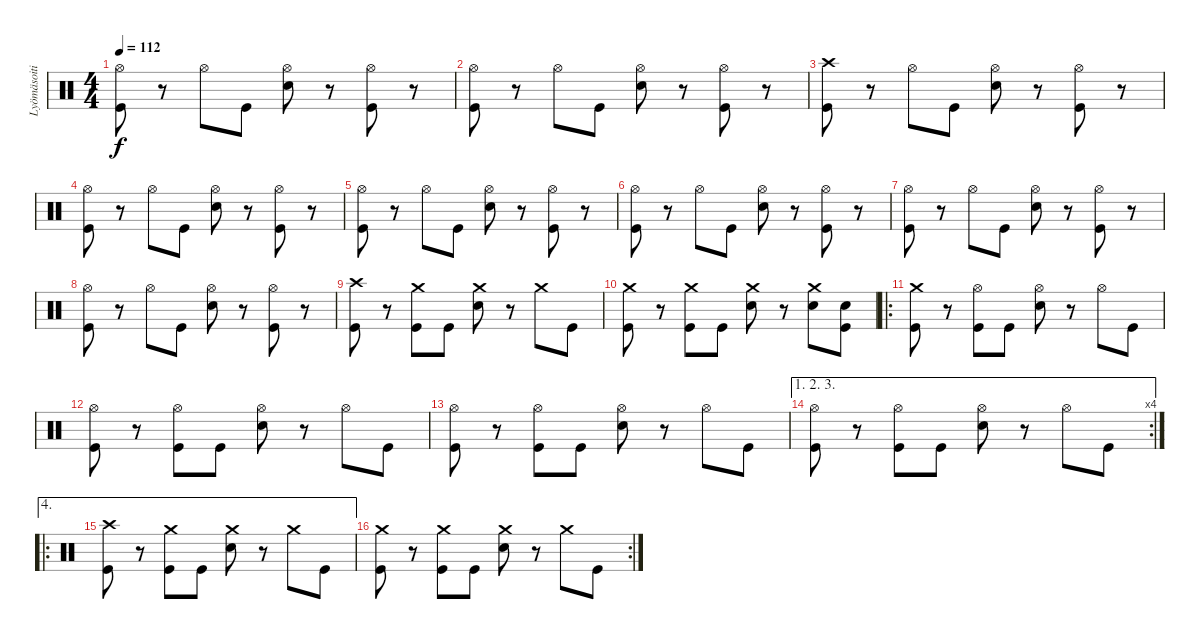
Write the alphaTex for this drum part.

\track ("Lyömäsoitin" "Lyömäsoiti") {instrument percussion}
\staff {score}
\articulation defaults
\ts (4 4)
\tempo 112
\clef neutral
\ks c
("Hi-Hat (open)" "Kick (hit)").8{dy f} r.8 "Hi-Hat (open)".8 "Kick (hit)".8 ("Hi-Hat (open)" "Snare (hit) 2").8 r.8 ("Hi-Hat (open)" "Kick (hit)").8 r.8 |
("Hi-Hat (open)" "Kick (hit)").8 r.8 "Hi-Hat (open)".8 "Kick (hit)".8 ("Hi-Hat (open)" "Snare (hit) 2").8 r.8 ("Hi-Hat (open)" "Kick (hit)").8 r.8 |
("Crash high (hit)" "Kick (hit)").8 r.8 "Hi-Hat (open)".8 "Kick (hit)".8 ("Hi-Hat (open)" "Snare (hit) 2").8 r.8 ("Hi-Hat (open)" "Kick (hit)").8 r.8 |
("Hi-Hat (open)" "Kick (hit)").8 r.8 "Hi-Hat (open)".8 "Kick (hit)".8 ("Hi-Hat (open)" "Snare (hit) 2").8 r.8 ("Hi-Hat (open)" "Kick (hit)").8 r.8 |
("Hi-Hat (open)" "Kick (hit)").8 r.8 "Hi-Hat (open)".8 "Kick (hit)".8 ("Hi-Hat (open)" "Snare (hit) 2").8 r.8 ("Hi-Hat (open)" "Kick (hit)").8 r.8 |
("Hi-Hat (open)" "Kick (hit)").8 r.8 "Hi-Hat (open)".8 "Kick (hit)".8 ("Hi-Hat (open)" "Snare (hit) 2").8 r.8 ("Hi-Hat (open)" "Kick (hit)").8 r.8 |
("Hi-Hat (open)" "Kick (hit)").8 r.8 "Hi-Hat (open)".8 "Kick (hit)".8 ("Hi-Hat (open)" "Snare (hit) 2").8 r.8 ("Hi-Hat (open)" "Kick (hit)").8 r.8 |
("Hi-Hat (open)" "Kick (hit)").8 r.8 "Hi-Hat (open)".8 "Kick (hit)".8 ("Hi-Hat (open)" "Snare (hit) 2").8 r.8 ("Hi-Hat (open)" "Kick (hit)").8 r.8 |
("Crash high (hit)" "Kick (hit)").8 r.8 ("Crash medium (hit)" "Kick (hit)").8 "Kick (hit)".8 ("Crash medium (hit)" "Snare (hit) 2").8 r.8 "Crash medium (hit)".8 "Kick (hit)".8 |
("Crash medium (hit)" "Kick (hit)").8 r.8 ("Crash medium (hit)" "Kick (hit)").8 "Kick (hit)".8 ("Crash medium (hit)" "Snare (hit) 2").8 r.8 ("Crash medium (hit)" "Snare (hit) 2").8 ("Snare (hit) 2" "Kick (hit)").8 |
\ro
("Crash medium (hit)" "Kick (hit)").8 r.8 ("Hi-Hat (open)" "Kick (hit)").8 "Kick (hit)".8 ("Hi-Hat (open)" "Snare (hit) 2").8 r.8 "Hi-Hat (open)".8 "Kick (hit)".8 |
("Hi-Hat (open)" "Kick (hit)").8 r.8 ("Hi-Hat (open)" "Kick (hit)").8 "Kick (hit)".8 ("Hi-Hat (open)" "Snare (hit) 2").8 r.8 "Hi-Hat (open)".8 "Kick (hit)".8 |
("Hi-Hat (open)" "Kick (hit)").8 r.8 ("Hi-Hat (open)" "Kick (hit)").8 "Kick (hit)".8 ("Hi-Hat (open)" "Snare (hit) 2").8 r.8 "Hi-Hat (open)".8 "Kick (hit)".8 |
\ae (1 2 3)
\rc 4
("Hi-Hat (open)" "Kick (hit)").8 r.8 ("Hi-Hat (open)" "Kick (hit)").8 "Kick (hit)".8 ("Hi-Hat (open)" "Snare (hit) 2").8 r.8 "Hi-Hat (open)".8 "Kick (hit)".8 |
\ae 4
\ro
("Crash high (hit)" "Kick (hit)").8 r.8 ("Crash medium (hit)" "Kick (hit)").8 "Kick (hit)".8 ("Crash medium (hit)" "Snare (hit) 2").8 r.8 "Crash medium (hit)".8 "Kick (hit)".8 |
\rc 2
("Crash medium (hit)" "Kick (hit)").8 r.8 ("Crash medium (hit)" "Kick (hit)").8 "Kick (hit)".8 ("Crash medium (hit)" "Snare (hit) 2").8 r.8 "Crash medium (hit)".8 "Kick (hit)".8
